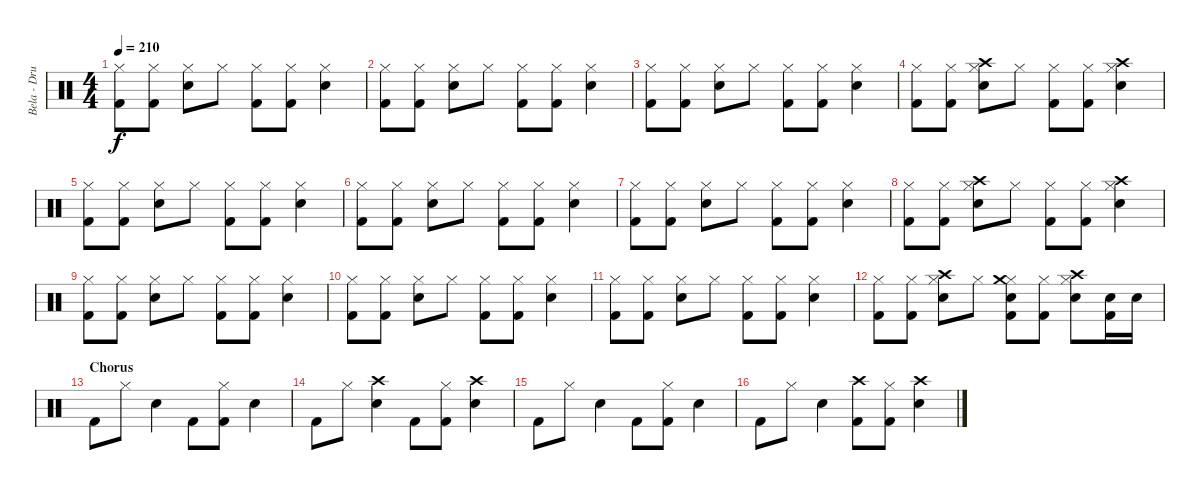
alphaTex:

\track ("Bela - Drums" "Bela - Dru") {instrument percussion}
\staff {score}
\articulation defaults
\ts (4 4)
\tempo 210
\clef neutral
\ks c
("Hi-Hat (closed)" "Kick (hit) 2").8{dy f} ("Hi-Hat (closed)" "Kick (hit) 2").8 ("Hi-Hat (closed)" "Electric Snare (hit)").8 "Hi-Hat (closed)".8 ("Hi-Hat (closed)" "Kick (hit) 2").8 ("Hi-Hat (closed)" "Kick (hit) 2").8 ("Hi-Hat (closed)" "Electric Snare (hit)").4 |
("Hi-Hat (closed)" "Kick (hit) 2").8 ("Hi-Hat (closed)" "Kick (hit) 2").8 ("Hi-Hat (closed)" "Electric Snare (hit)").8 "Hi-Hat (closed)".8 ("Hi-Hat (closed)" "Kick (hit) 2").8 ("Hi-Hat (closed)" "Kick (hit) 2").8 ("Hi-Hat (closed)" "Electric Snare (hit)").4 |
("Hi-Hat (closed)" "Kick (hit) 2").8 ("Hi-Hat (closed)" "Kick (hit) 2").8 ("Hi-Hat (closed)" "Electric Snare (hit)").8 "Hi-Hat (closed)".8 ("Hi-Hat (closed)" "Kick (hit) 2").8 ("Hi-Hat (closed)" "Kick (hit) 2").8 ("Hi-Hat (closed)" "Electric Snare (hit)").4 |
("Hi-Hat (closed)" "Kick (hit) 2").8 ("Hi-Hat (closed)" "Kick (hit) 2").8 ("Hi-Hat (closed)" "Crash high (hit)" "Electric Snare (hit)").8 "Hi-Hat (closed)".8 ("Hi-Hat (closed)" "Kick (hit) 2").8 ("Hi-Hat (closed)" "Kick (hit) 2").8 ("Hi-Hat (closed)" "Crash high (hit)" "Electric Snare (hit)").4 |
("Hi-Hat (closed)" "Kick (hit) 2").8 ("Hi-Hat (closed)" "Kick (hit) 2").8 ("Hi-Hat (closed)" "Electric Snare (hit)").8 "Hi-Hat (closed)".8 ("Hi-Hat (closed)" "Kick (hit) 2").8 ("Hi-Hat (closed)" "Kick (hit) 2").8 ("Hi-Hat (closed)" "Electric Snare (hit)").4 |
("Hi-Hat (closed)" "Kick (hit) 2").8 ("Hi-Hat (closed)" "Kick (hit) 2").8 ("Hi-Hat (closed)" "Electric Snare (hit)").8 "Hi-Hat (closed)".8 ("Hi-Hat (closed)" "Kick (hit) 2").8 ("Hi-Hat (closed)" "Kick (hit) 2").8 ("Hi-Hat (closed)" "Electric Snare (hit)").4 |
("Hi-Hat (closed)" "Kick (hit) 2").8 ("Hi-Hat (closed)" "Kick (hit) 2").8 ("Hi-Hat (closed)" "Electric Snare (hit)").8 "Hi-Hat (closed)".8 ("Hi-Hat (closed)" "Kick (hit) 2").8 ("Hi-Hat (closed)" "Kick (hit) 2").8 ("Hi-Hat (closed)" "Electric Snare (hit)").4 |
("Hi-Hat (closed)" "Kick (hit) 2").8 ("Hi-Hat (closed)" "Kick (hit) 2").8 ("Hi-Hat (closed)" "Crash high (hit)" "Electric Snare (hit)").8 "Hi-Hat (closed)".8 ("Hi-Hat (closed)" "Kick (hit) 2").8 ("Hi-Hat (closed)" "Kick (hit) 2").8 ("Hi-Hat (closed)" "Crash high (hit)" "Electric Snare (hit)").4 |
("Hi-Hat (closed)" "Kick (hit) 2").8 ("Hi-Hat (closed)" "Kick (hit) 2").8 ("Hi-Hat (closed)" "Electric Snare (hit)").8 "Hi-Hat (closed)".8 ("Hi-Hat (closed)" "Kick (hit) 2").8 ("Hi-Hat (closed)" "Kick (hit) 2").8 ("Hi-Hat (closed)" "Electric Snare (hit)").4 |
("Hi-Hat (closed)" "Kick (hit) 2").8 ("Hi-Hat (closed)" "Kick (hit) 2").8 ("Hi-Hat (closed)" "Electric Snare (hit)").8 "Hi-Hat (closed)".8 ("Hi-Hat (closed)" "Kick (hit) 2").8 ("Hi-Hat (closed)" "Kick (hit) 2").8 ("Hi-Hat (closed)" "Electric Snare (hit)").4 |
("Hi-Hat (closed)" "Kick (hit) 2").8 ("Hi-Hat (closed)" "Kick (hit) 2").8 ("Hi-Hat (closed)" "Electric Snare (hit)").8 "Hi-Hat (closed)".8 ("Hi-Hat (closed)" "Kick (hit) 2").8 ("Hi-Hat (closed)" "Kick (hit) 2").8 ("Hi-Hat (closed)" "Electric Snare (hit)").4 |
("Hi-Hat (closed)" "Kick (hit) 2").8 ("Hi-Hat (closed)" "Kick (hit) 2").8 ("Hi-Hat (closed)" "Crash high (hit)" "Electric Snare (hit)").8 "Hi-Hat (closed)".8 ("Hi-Hat (closed)" "Crash medium (hit)" "Electric Snare (hit)" "Kick (hit) 2").8 ("Hi-Hat (closed)" "Kick (hit) 2").8 ("Hi-Hat (closed)" "Crash high (hit)" "Electric Snare (hit)").8 ("Electric Snare (hit)" "Kick (hit) 2").16 "Electric Snare (hit)".16 |
\section ("" "Chorus")
"Kick (hit) 2".8 "Hi-Hat (closed)".8 "Electric Snare (hit)".4 "Kick (hit) 2".8 ("Hi-Hat (closed)" "Kick (hit) 2").8 "Electric Snare (hit)".4 |
"Kick (hit) 2".8 "Hi-Hat (closed)".8 ("Crash high (hit)" "Electric Snare (hit)").4 "Kick (hit) 2".8 ("Hi-Hat (closed)" "Kick (hit) 2").8 ("Crash high (hit)" "Electric Snare (hit)").4 |
"Kick (hit) 2".8 "Hi-Hat (closed)".8 "Electric Snare (hit)".4 "Kick (hit) 2".8 ("Hi-Hat (closed)" "Kick (hit) 2").8 "Electric Snare (hit)".4 |
"Kick (hit) 2".8 "Hi-Hat (closed)".8 "Electric Snare (hit)".4 ("Crash high (hit)" "Kick (hit) 2").8 ("Hi-Hat (closed)" "Kick (hit) 2").8 ("Crash high (hit)" "Electric Snare (hit)").4
